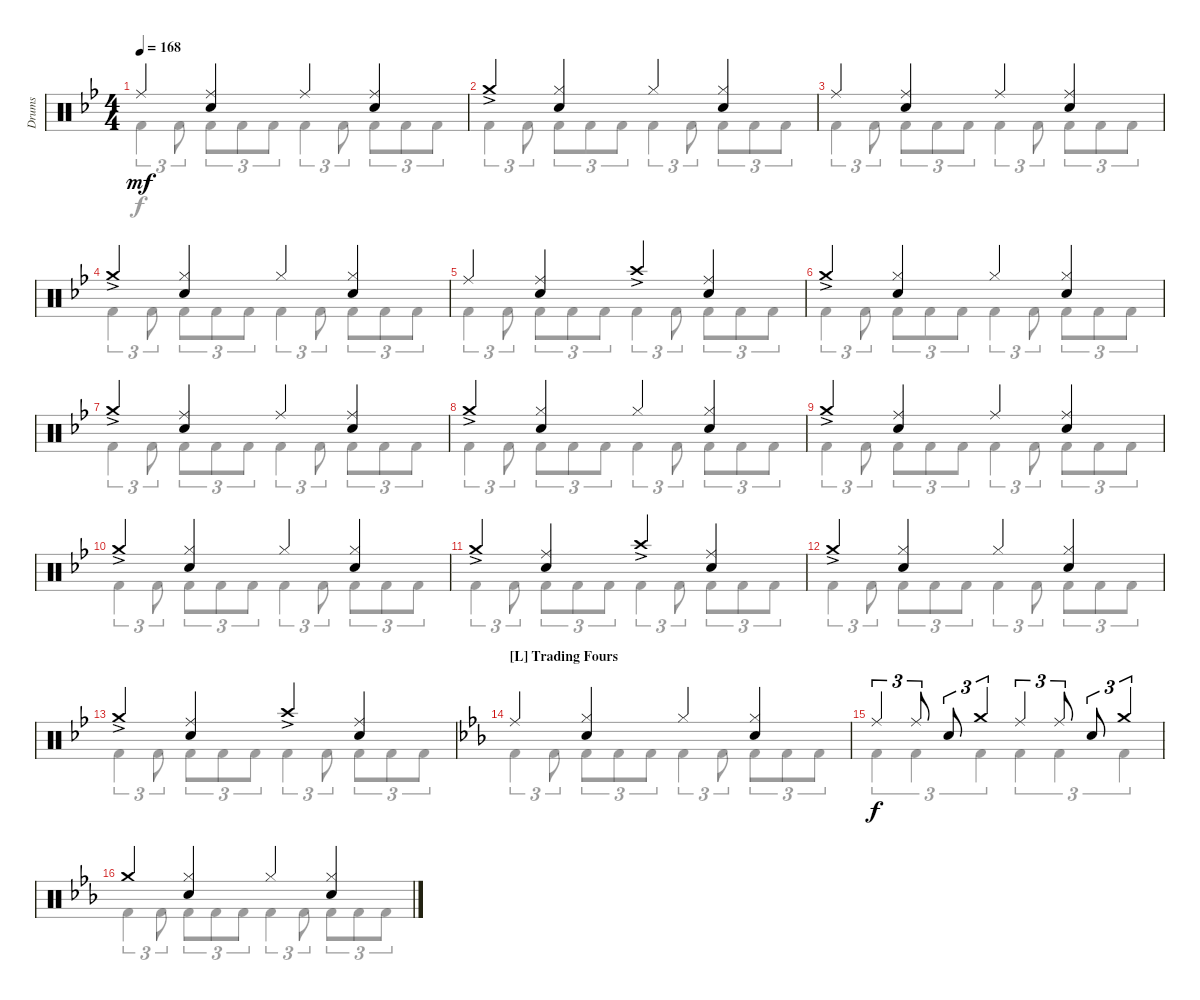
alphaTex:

\defaultSystemsLayout 4
\bracketExtendMode groupsimilarinstruments
\otherSystemsTrackNameOrientation horizontal
\track ("Drums" "Drums") {instrument percussion}
\staff {score}
\articulation defaults
\voice
\ts (4 4)
\tempo 168
\clef neutral
\ks bb "Ride (middle)"{acc forcenatural}.4{dy mf beam Up}
("Ride (middle)"{acc forcenatural} "Snare (hit) 2"{acc forcenatural}).4{beam Up} "Ride (middle)"{acc forcenatural}.4{beam Up} ("Ride (middle)"{acc forcenatural} "Snare (hit) 2"{acc forcenatural}).4{beam Up} |
"Crash medium (hit)"{ac acc forcenatural}.4{beam Up} ("Snare (hit) 2"{acc forcenatural} "Hi-Hat (closed)"{acc forcenatural}).4{beam Up} "Hi-Hat (closed)"{acc forcenatural}.4{beam Up} ("Snare (hit) 2"{acc forcenatural} "Hi-Hat (closed)"{acc forcenatural}).4{beam Up} |
"Ride (middle)"{acc forcenatural}.4{beam Up} ("Snare (hit) 2"{acc forcenatural} "Ride (middle)"{acc forcenatural}).4{beam Up} "Ride (middle)"{acc forcenatural}.4{beam Up} ("Snare (hit) 2"{acc forcenatural} "Ride (middle)"{acc forcenatural}).4{beam Up} |
"Crash medium (hit)"{ac acc forcenatural}.4{beam Up} ("Snare (hit) 2"{acc forcenatural} "Hi-Hat (closed)"{acc forcenatural}).4{beam Up} "Hi-Hat (closed)"{acc forcenatural}.4{beam Up} ("Snare (hit) 2"{acc forcenatural} "Hi-Hat (closed)"{acc forcenatural}).4{beam Up} |
"Ride (middle)"{acc forcenatural}.4{beam Up} ("Ride (middle)"{acc forcenatural} "Snare (hit) 2"{acc forcenatural}).4{beam Up} "Crash high (hit)"{ac acc forcenatural}.4{beam Up} ("Ride (middle)"{acc forcenatural} "Snare (hit) 2"{acc forcenatural}).4{beam Up} |
"Crash medium (hit)"{ac acc forcenatural}.4{beam Up} ("Snare (hit) 2"{acc forcenatural} "Hi-Hat (closed)"{acc forcenatural}).4{beam Up} "Hi-Hat (closed)"{acc forcenatural}.4{beam Up} ("Snare (hit) 2"{acc forcenatural} "Hi-Hat (closed)"{acc forcenatural}).4{beam Up} |
"Crash medium (hit)"{ac acc forcenatural}.4{beam Up} ("Snare (hit) 2"{acc forcenatural} "Ride (middle)"{acc forcenatural}).4{beam Up} "Ride (middle)"{acc forcenatural}.4{beam Up} ("Snare (hit) 2"{acc forcenatural} "Ride (middle)"{acc forcenatural}).4{beam Up} |
"Crash medium (hit)"{ac acc forcenatural}.4{beam Up} ("Snare (hit) 2"{acc forcenatural} "Hi-Hat (closed)"{acc forcenatural}).4{beam Up} "Hi-Hat (closed)"{acc forcenatural}.4{beam Up} ("Snare (hit) 2"{acc forcenatural} "Hi-Hat (closed)"{acc forcenatural}).4{beam Up} |
"Crash medium (hit)"{ac acc forcenatural}.4{beam Up} ("Snare (hit) 2"{acc forcenatural} "Ride (middle)"{acc forcenatural}).4{beam Up} "Ride (middle)"{acc forcenatural}.4{beam Up} ("Snare (hit) 2"{acc forcenatural} "Ride (middle)"{acc forcenatural}).4{beam Up} |
"Crash medium (hit)"{ac acc forcenatural}.4{beam Up} ("Snare (hit) 2"{acc forcenatural} "Hi-Hat (closed)"{acc forcenatural}).4{beam Up} "Hi-Hat (closed)"{acc forcenatural}.4{beam Up} ("Snare (hit) 2"{acc forcenatural} "Hi-Hat (closed)"{acc forcenatural}).4{beam Up} |
"Crash medium (hit)"{ac acc forcenatural}.4{beam Up} ("Snare (hit) 2"{acc forcenatural} "Ride (middle)"{acc forcenatural}).4{beam Up} "Crash high (hit)"{ac acc forcenatural}.4{beam Up} ("Snare (hit) 2"{acc forcenatural} "Ride (middle)"{acc forcenatural}).4{beam Up} |
"Crash medium (hit)"{ac acc forcenatural}.4{beam Up} ("Snare (hit) 2"{acc forcenatural} "Hi-Hat (closed)"{acc forcenatural}).4{beam Up} "Hi-Hat (closed)"{acc forcenatural}.4{beam Up} ("Snare (hit) 2"{acc forcenatural} "Hi-Hat (closed)"{acc forcenatural}).4{beam Up} |
"Crash medium (hit)"{ac acc forcenatural}.4{beam Up} ("Snare (hit) 2"{acc forcenatural} "Ride (middle)"{acc forcenatural}).4{beam Up} "Crash high (hit)"{ac acc forcenatural}.4{beam Up} ("Snare (hit) 2"{acc forcenatural} "Ride (middle)"{acc forcenatural}).4{beam Up} |
\section ("L" "Trading Fours")
\ks eb "Ride (middle)"{acc forcenatural}.4{beam Up}
("Hi-Hat (closed)"{acc forcenatural} "Snare (hit) 2"{acc forcenatural}).4{beam Up} "Hi-Hat (closed)"{acc forcenatural}.4{beam Up} ("Hi-Hat (closed)"{acc forcenatural} "Snare (hit) 2"{acc forcenatural}).4{beam Up} |
"Ride (middle)"{acc forcenatural}.4{tu (3 2) dy f beam Up} "Ride (middle)"{acc forcenatural}.8{tu (3 2) beam Up} "Snare (hit) 2"{acc forcenatural}.8{tu (3 2) beam Up} "Crash medium (hit)"{acc forcenatural}.4{tu (3 2) beam Up} "Ride (middle)"{acc forcenatural}.4{tu (3 2) beam Up} "Ride (middle)"{acc forcenatural}.8{tu (3 2) beam Up} "Snare (hit) 2"{acc forcenatural}.8{tu (3 2) beam Up} "Crash medium (hit)"{acc forcenatural}.4{tu (3 2) beam Up} |
"Crash medium (hit)"{acc forcenatural}.4{beam Up} ("Hi-Hat (closed)"{acc forcenatural} "Snare (hit) 2"{acc forcenatural}).4{beam Up} "Hi-Hat (closed)"{acc forcenatural}.4{beam Up} ("Hi-Hat (closed)"{acc forcenatural} "Snare (hit) 2"{acc forcenatural}).4{beam Up}
\voice
\clef neutral
\ottava regular
\simile none
\ks bb "Kick (hit) 2"{acc forcenatural}.4{tu (3 2) dy f beam Down} "Kick (hit) 2"{acc forcenatural}.8{tu (3 2) beam Down} "Kick (hit) 2"{acc forcenatural}.8{tu (3 2) beam Down} "Kick (hit) 2"{acc forcenatural}.8{tu (3 2) beam Down} "Kick (hit) 2"{acc forcenatural}.8{tu (3 2) beam Down} "Kick (hit) 2"{acc forcenatural}.4{tu (3 2) beam Down} "Kick (hit) 2"{acc forcenatural}.8{tu (3 2) beam Down} "Kick (hit) 2"{acc forcenatural}.8{tu (3 2) beam Down} "Kick (hit) 2"{acc forcenatural}.8{tu (3 2) beam Down} "Kick (hit) 2"{acc forcenatural}.8{tu (3 2) beam Down}
|
"Kick (hit) 2"{acc forcenatural}.4{tu (3 2) beam Down} "Kick (hit) 2"{acc forcenatural}.8{tu (3 2) beam Down} "Kick (hit) 2"{acc forcenatural}.8{tu (3 2) beam Down} "Kick (hit) 2"{acc forcenatural}.8{tu (3 2) beam Down} "Kick (hit) 2"{acc forcenatural}.8{tu (3 2) beam Down} "Kick (hit) 2"{acc forcenatural}.4{tu (3 2) beam Down} "Kick (hit) 2"{acc forcenatural}.8{tu (3 2) beam Down} "Kick (hit) 2"{acc forcenatural}.8{tu (3 2) beam Down} "Kick (hit) 2"{acc forcenatural}.8{tu (3 2) beam Down} "Kick (hit) 2"{acc forcenatural}.8{tu (3 2) beam Down} |
"Kick (hit) 2"{acc forcenatural}.4{tu (3 2) beam Down} "Kick (hit) 2"{acc forcenatural}.8{tu (3 2) beam Down} "Kick (hit) 2"{acc forcenatural}.8{tu (3 2) beam Down} "Kick (hit) 2"{acc forcenatural}.8{tu (3 2) beam Down} "Kick (hit) 2"{acc forcenatural}.8{tu (3 2) beam Down} "Kick (hit) 2"{acc forcenatural}.4{tu (3 2) beam Down} "Kick (hit) 2"{acc forcenatural}.8{tu (3 2) beam Down} "Kick (hit) 2"{acc forcenatural}.8{tu (3 2) beam Down} "Kick (hit) 2"{acc forcenatural}.8{tu (3 2) beam Down} "Kick (hit) 2"{acc forcenatural}.8{tu (3 2) beam Down} |
"Kick (hit) 2"{acc forcenatural}.4{tu (3 2) beam Down} "Kick (hit) 2"{acc forcenatural}.8{tu (3 2) beam Down} "Kick (hit) 2"{acc forcenatural}.8{tu (3 2) beam Down} "Kick (hit) 2"{acc forcenatural}.8{tu (3 2) beam Down} "Kick (hit) 2"{acc forcenatural}.8{tu (3 2) beam Down} "Kick (hit) 2"{acc forcenatural}.4{tu (3 2) beam Down} "Kick (hit) 2"{acc forcenatural}.8{tu (3 2) beam Down} "Kick (hit) 2"{acc forcenatural}.8{tu (3 2) beam Down} "Kick (hit) 2"{acc forcenatural}.8{tu (3 2) beam Down} "Kick (hit) 2"{acc forcenatural}.8{tu (3 2) beam Down} |
"Kick (hit) 2"{acc forcenatural}.4{tu (3 2) beam Down} "Kick (hit) 2"{acc forcenatural}.8{tu (3 2) beam Down} "Kick (hit) 2"{acc forcenatural}.8{tu (3 2) beam Down} "Kick (hit) 2"{acc forcenatural}.8{tu (3 2) beam Down} "Kick (hit) 2"{acc forcenatural}.8{tu (3 2) beam Down} "Kick (hit) 2"{acc forcenatural}.4{tu (3 2) beam Down} "Kick (hit) 2"{acc forcenatural}.8{tu (3 2) beam Down} "Kick (hit) 2"{acc forcenatural}.8{tu (3 2) beam Down} "Kick (hit) 2"{acc forcenatural}.8{tu (3 2) beam Down} "Kick (hit) 2"{acc forcenatural}.8{tu (3 2) beam Down} |
"Kick (hit) 2"{acc forcenatural}.4{tu (3 2) beam Down} "Kick (hit) 2"{acc forcenatural}.8{tu (3 2) beam Down} "Kick (hit) 2"{acc forcenatural}.8{tu (3 2) beam Down} "Kick (hit) 2"{acc forcenatural}.8{tu (3 2) beam Down} "Kick (hit) 2"{acc forcenatural}.8{tu (3 2) beam Down} "Kick (hit) 2"{acc forcenatural}.4{tu (3 2) beam Down} "Kick (hit) 2"{acc forcenatural}.8{tu (3 2) beam Down} "Kick (hit) 2"{acc forcenatural}.8{tu (3 2) beam Down} "Kick (hit) 2"{acc forcenatural}.8{tu (3 2) beam Down} "Kick (hit) 2"{acc forcenatural}.8{tu (3 2) beam Down} |
"Kick (hit) 2"{acc forcenatural}.4{tu (3 2) beam Down} "Kick (hit) 2"{acc forcenatural}.8{tu (3 2) beam Down} "Kick (hit) 2"{acc forcenatural}.8{tu (3 2) beam Down} "Kick (hit) 2"{acc forcenatural}.8{tu (3 2) beam Down} "Kick (hit) 2"{acc forcenatural}.8{tu (3 2) beam Down} "Kick (hit) 2"{acc forcenatural}.4{tu (3 2) beam Down} "Kick (hit) 2"{acc forcenatural}.8{tu (3 2) beam Down} "Kick (hit) 2"{acc forcenatural}.8{tu (3 2) beam Down} "Kick (hit) 2"{acc forcenatural}.8{tu (3 2) beam Down} "Kick (hit) 2"{acc forcenatural}.8{tu (3 2) beam Down} |
"Kick (hit) 2"{acc forcenatural}.4{tu (3 2) beam Down} "Kick (hit) 2"{acc forcenatural}.8{tu (3 2) beam Down} "Kick (hit) 2"{acc forcenatural}.8{tu (3 2) beam Down} "Kick (hit) 2"{acc forcenatural}.8{tu (3 2) beam Down} "Kick (hit) 2"{acc forcenatural}.8{tu (3 2) beam Down} "Kick (hit) 2"{acc forcenatural}.4{tu (3 2) beam Down} "Kick (hit) 2"{acc forcenatural}.8{tu (3 2) beam Down} "Kick (hit) 2"{acc forcenatural}.8{tu (3 2) beam Down} "Kick (hit) 2"{acc forcenatural}.8{tu (3 2) beam Down} "Kick (hit) 2"{acc forcenatural}.8{tu (3 2) beam Down} |
"Kick (hit) 2"{acc forcenatural}.4{tu (3 2) beam Down} "Kick (hit) 2"{acc forcenatural}.8{tu (3 2) beam Down} "Kick (hit) 2"{acc forcenatural}.8{tu (3 2) beam Down} "Kick (hit) 2"{acc forcenatural}.8{tu (3 2) beam Down} "Kick (hit) 2"{acc forcenatural}.8{tu (3 2) beam Down} "Kick (hit) 2"{acc forcenatural}.4{tu (3 2) beam Down} "Kick (hit) 2"{acc forcenatural}.8{tu (3 2) beam Down} "Kick (hit) 2"{acc forcenatural}.8{tu (3 2) beam Down} "Kick (hit) 2"{acc forcenatural}.8{tu (3 2) beam Down} "Kick (hit) 2"{acc forcenatural}.8{tu (3 2) beam Down} |
"Kick (hit) 2"{acc forcenatural}.4{tu (3 2) beam Down} "Kick (hit) 2"{acc forcenatural}.8{tu (3 2) beam Down} "Kick (hit) 2"{acc forcenatural}.8{tu (3 2) beam Down} "Kick (hit) 2"{acc forcenatural}.8{tu (3 2) beam Down} "Kick (hit) 2"{acc forcenatural}.8{tu (3 2) beam Down} "Kick (hit) 2"{acc forcenatural}.4{tu (3 2) beam Down} "Kick (hit) 2"{acc forcenatural}.8{tu (3 2) beam Down} "Kick (hit) 2"{acc forcenatural}.8{tu (3 2) beam Down} "Kick (hit) 2"{acc forcenatural}.8{tu (3 2) beam Down} "Kick (hit) 2"{acc forcenatural}.8{tu (3 2) beam Down} |
"Kick (hit) 2"{acc forcenatural}.4{tu (3 2) beam Down} "Kick (hit) 2"{acc forcenatural}.8{tu (3 2) beam Down} "Kick (hit) 2"{acc forcenatural}.8{tu (3 2) beam Down} "Kick (hit) 2"{acc forcenatural}.8{tu (3 2) beam Down} "Kick (hit) 2"{acc forcenatural}.8{tu (3 2) beam Down} "Kick (hit) 2"{acc forcenatural}.4{tu (3 2) beam Down} "Kick (hit) 2"{acc forcenatural}.8{tu (3 2) beam Down} "Kick (hit) 2"{acc forcenatural}.8{tu (3 2) beam Down} "Kick (hit) 2"{acc forcenatural}.8{tu (3 2) beam Down} "Kick (hit) 2"{acc forcenatural}.8{tu (3 2) beam Down} |
"Kick (hit) 2"{acc forcenatural}.4{tu (3 2) beam Down} "Kick (hit) 2"{acc forcenatural}.8{tu (3 2) beam Down} "Kick (hit) 2"{acc forcenatural}.8{tu (3 2) beam Down} "Kick (hit) 2"{acc forcenatural}.8{tu (3 2) beam Down} "Kick (hit) 2"{acc forcenatural}.8{tu (3 2) beam Down} "Kick (hit) 2"{acc forcenatural}.4{tu (3 2) beam Down} "Kick (hit) 2"{acc forcenatural}.8{tu (3 2) beam Down} "Kick (hit) 2"{acc forcenatural}.8{tu (3 2) beam Down} "Kick (hit) 2"{acc forcenatural}.8{tu (3 2) beam Down} "Kick (hit) 2"{acc forcenatural}.8{tu (3 2) beam Down} |
"Kick (hit) 2"{acc forcenatural}.4{tu (3 2) beam Down} "Kick (hit) 2"{acc forcenatural}.8{tu (3 2) beam Down} "Kick (hit) 2"{acc forcenatural}.8{tu (3 2) beam Down} "Kick (hit) 2"{acc forcenatural}.8{tu (3 2) beam Down} "Kick (hit) 2"{acc forcenatural}.8{tu (3 2) beam Down} "Kick (hit) 2"{acc forcenatural}.4{tu (3 2) beam Down} "Kick (hit) 2"{acc forcenatural}.8{tu (3 2) beam Down} "Kick (hit) 2"{acc forcenatural}.8{tu (3 2) beam Down} "Kick (hit) 2"{acc forcenatural}.8{tu (3 2) beam Down} "Kick (hit) 2"{acc forcenatural}.8{tu (3 2) beam Down} |
\ks eb "Kick (hit) 2"{acc forcenatural}.4{tu (3 2) beam Down} "Kick (hit) 2"{acc forcenatural}.8{tu (3 2) beam Down} "Kick (hit) 2"{acc forcenatural}.8{tu (3 2) beam Down} "Kick (hit) 2"{acc forcenatural}.8{tu (3 2) beam Down} "Kick (hit) 2"{acc forcenatural}.8{tu (3 2) beam Down} "Kick (hit) 2"{acc forcenatural}.4{tu (3 2) beam Down} "Kick (hit) 2"{acc forcenatural}.8{tu (3 2) beam Down} "Kick (hit) 2"{acc forcenatural}.8{tu (3 2) beam Down} "Kick (hit) 2"{acc forcenatural}.8{tu (3 2) beam Down} "Kick (hit) 2"{acc forcenatural}.8{tu (3 2) beam Down}
|
"Kick (hit) 2"{acc forcenatural}.4{tu (3 2) beam Down} "Kick (hit) 2"{acc forcenatural}.4{tu (3 2) beam Down} "Kick (hit) 2"{acc forcenatural}.4{tu (3 2) beam Down} "Kick (hit) 2"{acc forcenatural}.4{tu (3 2) beam Down} "Kick (hit) 2"{acc forcenatural}.4{tu (3 2) beam Down} "Kick (hit) 2"{acc forcenatural}.4{tu (3 2) beam Down} |
"Kick (hit) 2"{acc forcenatural}.4{tu (3 2) beam Down} "Kick (hit) 2"{acc forcenatural}.8{tu (3 2) beam Down} "Kick (hit) 2"{acc forcenatural}.8{tu (3 2) beam Down} "Kick (hit) 2"{acc forcenatural}.8{tu (3 2) beam Down} "Kick (hit) 2"{acc forcenatural}.8{tu (3 2) beam Down} "Kick (hit) 2"{acc forcenatural}.4{tu (3 2) beam Down} "Kick (hit) 2"{acc forcenatural}.8{tu (3 2) beam Down} "Kick (hit) 2"{acc forcenatural}.8{tu (3 2) beam Down} "Kick (hit) 2"{acc forcenatural}.8{tu (3 2) beam Down} "Kick (hit) 2"{acc forcenatural}.8{tu (3 2) beam Down}
